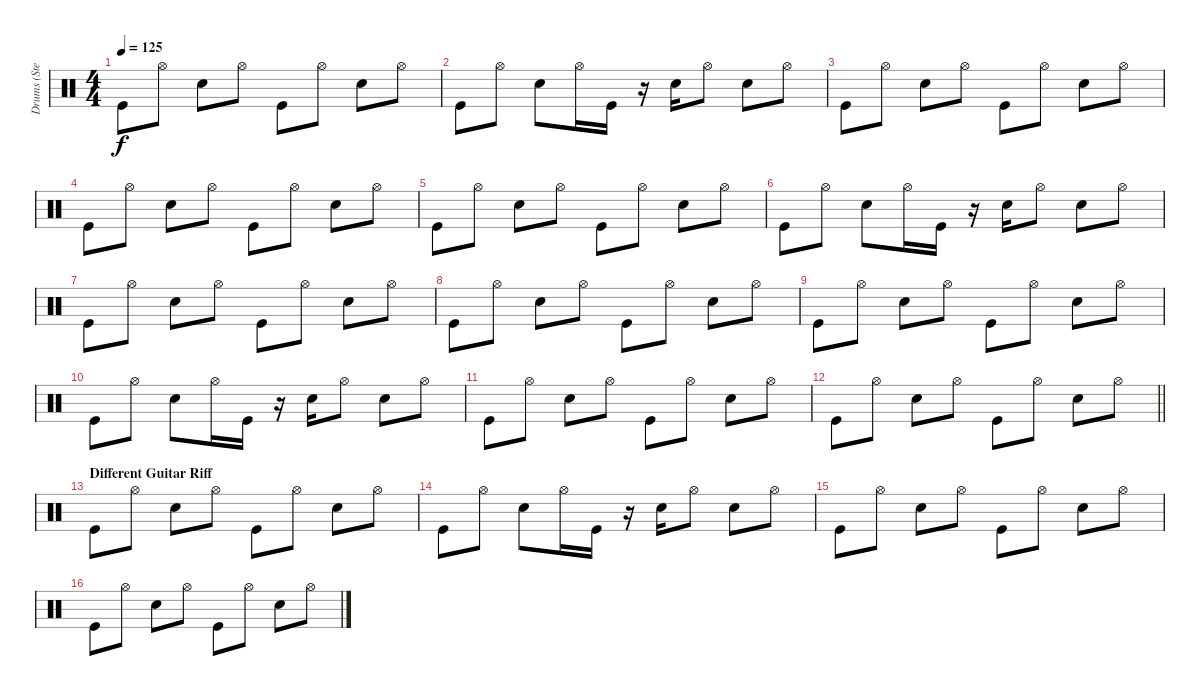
\track ("Drums (Steve)" "Drums (Ste") {instrument percussion}
\staff {score}
\articulation defaults
\ts (4 4)
\tempo 125
\clef neutral
\ks c "Kick (hit)".8{dy f} "Hi-Hat (open)".8 "Electric Snare (hit)".8 "Hi-Hat (open)".8 "Kick (hit)".8 "Hi-Hat (open)".8 "Electric Snare (hit)".8 "Hi-Hat (open)".8
|
"Kick (hit)".8 "Hi-Hat (open)".8 "Electric Snare (hit)".8 "Hi-Hat (open)".16 "Kick (hit)".16 r.16 "Electric Snare (hit)".16 "Hi-Hat (open)".8 "Electric Snare (hit)".8 "Hi-Hat (open)".8 |
"Kick (hit)".8 "Hi-Hat (open)".8 "Electric Snare (hit)".8 "Hi-Hat (open)".8 "Kick (hit)".8 "Hi-Hat (open)".8 "Electric Snare (hit)".8 "Hi-Hat (open)".8 |
"Kick (hit)".8 "Hi-Hat (open)".8 "Electric Snare (hit)".8 "Hi-Hat (open)".8 "Kick (hit)".8 "Hi-Hat (open)".8 "Electric Snare (hit)".8 "Hi-Hat (open)".8 |
"Kick (hit)".8 "Hi-Hat (open)".8 "Electric Snare (hit)".8 "Hi-Hat (open)".8 "Kick (hit)".8 "Hi-Hat (open)".8 "Electric Snare (hit)".8 "Hi-Hat (open)".8 |
"Kick (hit)".8 "Hi-Hat (open)".8 "Electric Snare (hit)".8 "Hi-Hat (open)".16 "Kick (hit)".16 r.16 "Electric Snare (hit)".16 "Hi-Hat (open)".8 "Electric Snare (hit)".8 "Hi-Hat (open)".8 |
"Kick (hit)".8 "Hi-Hat (open)".8 "Electric Snare (hit)".8 "Hi-Hat (open)".8 "Kick (hit)".8 "Hi-Hat (open)".8 "Electric Snare (hit)".8 "Hi-Hat (open)".8 |
"Kick (hit)".8 "Hi-Hat (open)".8 "Electric Snare (hit)".8 "Hi-Hat (open)".8 "Kick (hit)".8 "Hi-Hat (open)".8 "Electric Snare (hit)".8 "Hi-Hat (open)".8 |
"Kick (hit)".8 "Hi-Hat (open)".8 "Electric Snare (hit)".8 "Hi-Hat (open)".8 "Kick (hit)".8 "Hi-Hat (open)".8 "Electric Snare (hit)".8 "Hi-Hat (open)".8 |
"Kick (hit)".8 "Hi-Hat (open)".8 "Electric Snare (hit)".8 "Hi-Hat (open)".16 "Kick (hit)".16 r.16 "Electric Snare (hit)".16 "Hi-Hat (open)".8 "Electric Snare (hit)".8 "Hi-Hat (open)".8 |
"Kick (hit)".8 "Hi-Hat (open)".8 "Electric Snare (hit)".8 "Hi-Hat (open)".8 "Kick (hit)".8 "Hi-Hat (open)".8 "Electric Snare (hit)".8 "Hi-Hat (open)".8 |
\barLineRight lightlight "Kick (hit)".8 "Hi-Hat (open)".8 "Electric Snare (hit)".8 "Hi-Hat (open)".8 "Kick (hit)".8 "Hi-Hat (open)".8 "Electric Snare (hit)".8 "Hi-Hat (open)".8
|
\section ("" "Different Guitar Riff")
"Kick (hit)".8 "Hi-Hat (open)".8 "Electric Snare (hit)".8 "Hi-Hat (open)".8 "Kick (hit)".8 "Hi-Hat (open)".8 "Electric Snare (hit)".8 "Hi-Hat (open)".8 |
"Kick (hit)".8 "Hi-Hat (open)".8 "Electric Snare (hit)".8 "Hi-Hat (open)".16 "Kick (hit)".16 r.16 "Electric Snare (hit)".16 "Hi-Hat (open)".8 "Electric Snare (hit)".8 "Hi-Hat (open)".8 |
"Kick (hit)".8 "Hi-Hat (open)".8 "Electric Snare (hit)".8 "Hi-Hat (open)".8 "Kick (hit)".8 "Hi-Hat (open)".8 "Electric Snare (hit)".8 "Hi-Hat (open)".8 |
"Kick (hit)".8 "Hi-Hat (open)".8 "Electric Snare (hit)".8 "Hi-Hat (open)".8 "Kick (hit)".8 "Hi-Hat (open)".8 "Electric Snare (hit)".8 "Hi-Hat (open)".8
